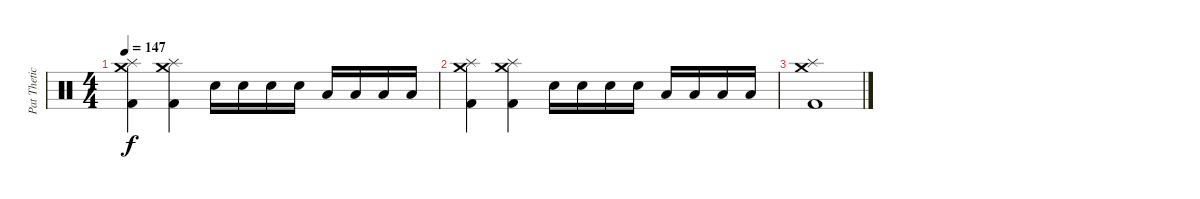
\track ("Pat Thetic Drums" "Pat Thetic") {instrument percussion}
\staff {score}
\articulation defaults
\ts (4 4)
\tempo 147
\clef neutral
\ks c
("Splash (hit)" "Kick (hit) 2" "Crash medium (hit)").4{dy f} ("Splash (hit)" "Kick (hit) 2" "Crash medium (hit)").4 "Snare (hit) 2".16 "Snare (hit) 2".16 "Snare (hit) 2".16 "Snare (hit) 2".16 "Low Floor Tom (hit)".16 "Low Floor Tom (hit)".16 "Low Floor Tom (hit)".16 "Low Floor Tom (hit)".16 |
("Splash (hit)" "Kick (hit) 2" "Crash medium (hit)").4 ("Splash (hit)" "Kick (hit) 2" "Crash medium (hit)").4 "Snare (hit) 2".16 "Snare (hit) 2".16 "Snare (hit) 2".16 "Snare (hit) 2".16 "Low Floor Tom (hit)".16 "Low Floor Tom (hit)".16 "Low Floor Tom (hit)".16 "Low Floor Tom (hit)".16 |
("Splash (hit)" "Kick (hit) 2" "Crash medium (hit)").1
